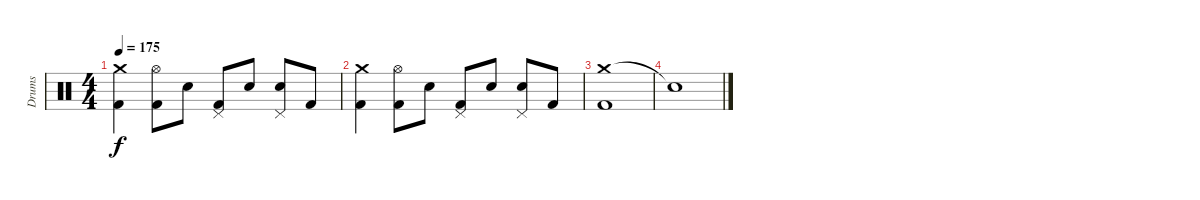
\track ("Drums" "Drums") {instrument percussion}
\staff {score}
\articulation defaults
\ts (4 4)
\tempo 175
\clef neutral
\ks c
("Crash medium (hit)" "Kick (hit) 2").4{dy f} ("Hi-Hat (open)" "Kick (hit) 2").8 "Snare (hit) 2".8 ("Pedal Hi-Hat (hit)" "Kick (hit) 2").8 "Snare (hit) 2".8 ("Pedal Hi-Hat (hit)" "Snare (hit) 2").8 "Kick (hit) 2".8 |
("Crash medium (hit)" "Kick (hit) 2").4 ("Hi-Hat (open)" "Kick (hit) 2").8 "Snare (hit) 2".8 ("Pedal Hi-Hat (hit)" "Kick (hit) 2").8 "Snare (hit) 2".8 ("Pedal Hi-Hat (hit)" "Snare (hit) 2").8 "Kick (hit) 2".8 |
("Crash medium (hit)" "Kick (hit) 2").1 |
"Snare (hit)"{t}.1
